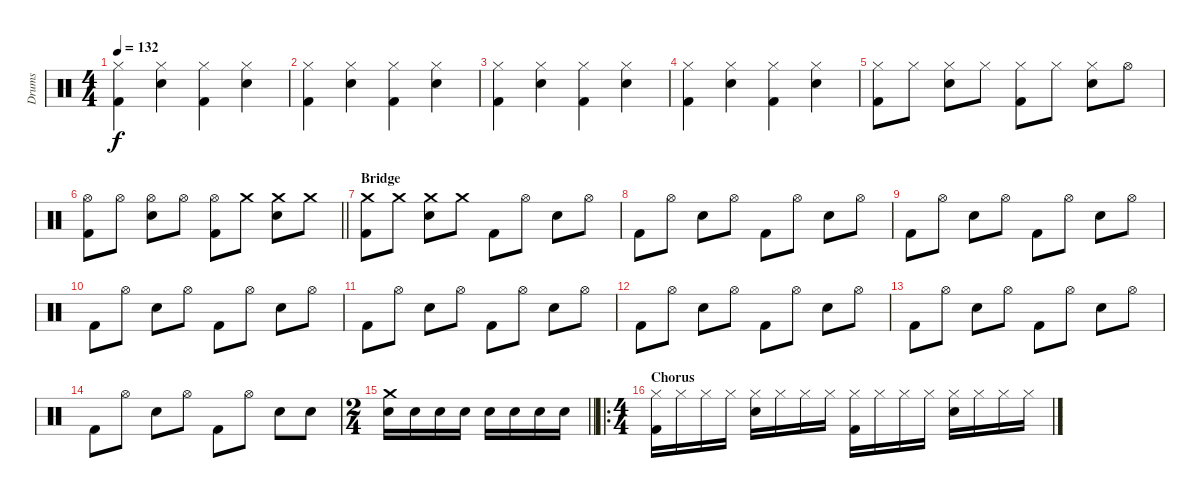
\track ("Drums" "Drums") {instrument percussion}
\staff {score}
\articulation defaults
\ts (4 4)
\tempo 132
\clef neutral
\ks c
("Hi-Hat (closed)" "Kick (hit) 2").4{dy f} ("Hi-Hat (closed)" "Snare (hit) 2").4 ("Hi-Hat (closed)" "Kick (hit) 2").4 ("Hi-Hat (closed)" "Snare (hit) 2").4 |
("Hi-Hat (closed)" "Kick (hit) 2").4 ("Hi-Hat (closed)" "Snare (hit) 2").4 ("Hi-Hat (closed)" "Kick (hit) 2").4 ("Hi-Hat (closed)" "Snare (hit) 2").4 |
("Hi-Hat (closed)" "Kick (hit) 2").4 ("Hi-Hat (closed)" "Snare (hit) 2").4 ("Hi-Hat (closed)" "Kick (hit) 2").4 ("Hi-Hat (closed)" "Snare (hit) 2").4 |
("Hi-Hat (closed)" "Kick (hit) 2").4 ("Hi-Hat (closed)" "Snare (hit) 2").4 ("Hi-Hat (closed)" "Kick (hit) 2").4 ("Hi-Hat (closed)" "Snare (hit) 2").4 |
("Hi-Hat (closed)" "Kick (hit) 2").8 "Hi-Hat (closed)".8 ("Hi-Hat (closed)" "Snare (hit) 2").8 "Hi-Hat (closed)".8 ("Hi-Hat (closed)" "Kick (hit) 2").8 "Hi-Hat (closed)".8 ("Hi-Hat (closed)" "Snare (hit) 2").8 "Hi-Hat (open)".8 |
\barLineRight lightlight
("Hi-Hat (open)" "Kick (hit) 2").8 "Hi-Hat (open)".8 ("Hi-Hat (open)" "Snare (hit) 2").8 "Hi-Hat (open)".8 ("Hi-Hat (open)" "Kick (hit) 2").8 "Crash medium (hit)".8 ("Crash medium (hit)" "Snare (hit) 2").8 "Crash medium (hit)".8 |
\section ("" "Bridge")
("Crash medium (hit)" "Kick (hit) 2").8 "Crash medium (hit)".8 ("Crash medium (hit)" "Snare (hit) 2").8 "Crash medium (hit)".8 "Kick (hit) 2".8 "Hi-Hat (open)".8 "Snare (hit) 2".8 "Hi-Hat (open)".8 |
"Kick (hit) 2".8 "Hi-Hat (open)".8 "Snare (hit) 2".8 "Hi-Hat (open)".8 "Kick (hit) 2".8 "Hi-Hat (open)".8 "Snare (hit) 2".8 "Hi-Hat (open)".8 |
"Kick (hit) 2".8 "Hi-Hat (open)".8 "Snare (hit) 2".8 "Hi-Hat (open)".8 "Kick (hit) 2".8 "Hi-Hat (open)".8 "Snare (hit) 2".8 "Hi-Hat (open)".8 |
"Kick (hit) 2".8 "Hi-Hat (open)".8 "Snare (hit) 2".8 "Hi-Hat (open)".8 "Kick (hit) 2".8 "Hi-Hat (open)".8 "Snare (hit) 2".8 "Hi-Hat (open)".8 |
"Kick (hit) 2".8 "Hi-Hat (open)".8 "Snare (hit) 2".8 "Hi-Hat (open)".8 "Kick (hit) 2".8 "Hi-Hat (open)".8 "Snare (hit) 2".8 "Hi-Hat (open)".8 |
"Kick (hit) 2".8 "Hi-Hat (open)".8 "Snare (hit) 2".8 "Hi-Hat (open)".8 "Kick (hit) 2".8 "Hi-Hat (open)".8 "Snare (hit) 2".8 "Hi-Hat (open)".8 |
"Kick (hit) 2".8 "Hi-Hat (open)".8 "Snare (hit) 2".8 "Hi-Hat (open)".8 "Kick (hit) 2".8 "Hi-Hat (open)".8 "Snare (hit) 2".8 "Hi-Hat (open)".8 |
"Kick (hit) 2".8 "Hi-Hat (open)".8 "Snare (hit) 2".8 "Hi-Hat (open)".8 "Kick (hit) 2".8 "Hi-Hat (open)".8 "Snare (hit) 2".8 "Snare (hit) 2".8 |
\ts (2 4)
\barLineRight lightlight
("Crash medium (hit)" "Snare (hit) 2").16 "Snare (hit) 2".16 "Snare (hit) 2".16 "Snare (hit) 2".16 "Snare (hit) 2".16 "Snare (hit) 2".16 "Snare (hit) 2".16 "Snare (hit) 2".16 |
\ro
\ts (4 4)
\section ("" "Chorus")
("Hi-Hat (closed)" "Kick (hit) 2").16 "Hi-Hat (closed)".16 "Hi-Hat (closed)".16 "Hi-Hat (closed)".16 ("Hi-Hat (closed)" "Snare (hit) 2").16 "Hi-Hat (closed)".16 "Hi-Hat (closed)".16 "Hi-Hat (closed)".16 ("Hi-Hat (closed)" "Kick (hit) 2").16 "Hi-Hat (closed)".16 "Hi-Hat (closed)".16 "Hi-Hat (closed)".16 ("Hi-Hat (closed)" "Snare (hit) 2").16 "Hi-Hat (closed)".16 "Hi-Hat (closed)".16 "Hi-Hat (closed)".16
